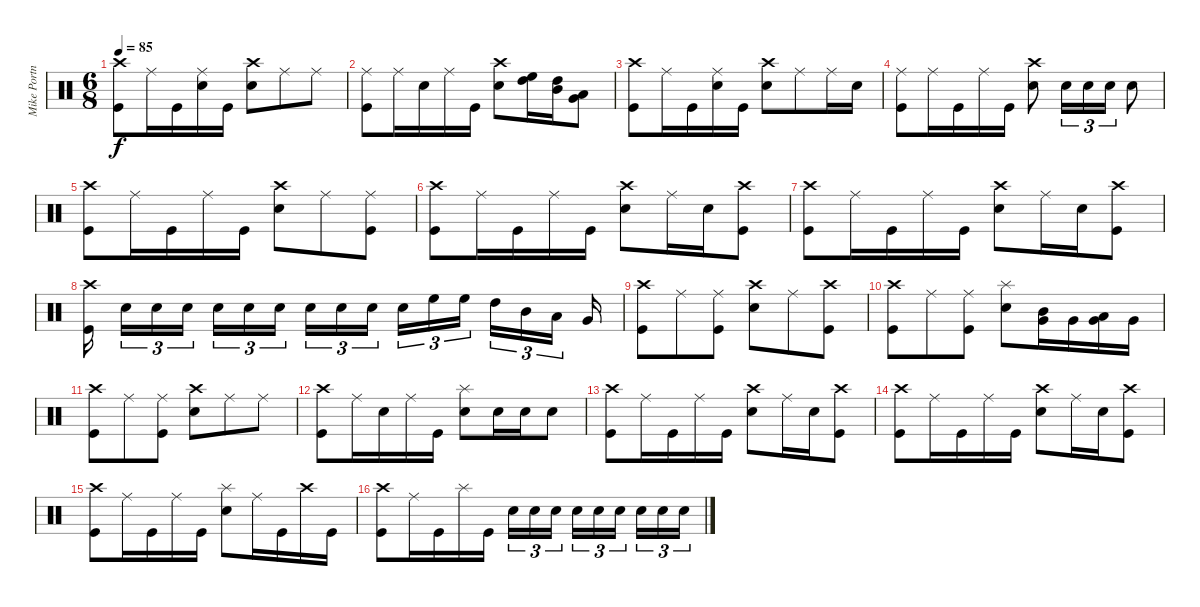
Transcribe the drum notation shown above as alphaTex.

\track ("Mike Portnoy" "Mike Portn") {instrument percussion}
\staff {score}
\articulation defaults
\ts (6 8)
\tempo 85
\clef neutral
\ks c
("Crash high (hit)" "Kick (hit)").8{dy f} "Ride (middle)".16 "Kick (hit)".16 ("Ride (middle)" "Electric Snare (hit)").16 "Kick (hit)".16 ("Crash high (hit)" "Electric Snare (hit)").8 "Ride (middle)".8 "Ride (middle)".8 |
("Ride (middle)" "Kick (hit)").8 "Ride (middle)".16 "Electric Snare (hit)".16 "Ride (middle)".16 "Kick (hit)".16 ("Crash high (hit)" "Electric Snare (hit)").8 ("High Floor Tom (hit)" "High Tom (hit)").16 ("High Tom (hit)" "Mid Tom (hit)").16 ("Very Low Tom (hit)" "Low Tom (hit)").8 |
("Crash high (hit)" "Kick (hit)").8 "Ride (middle)".16 "Kick (hit)".16 ("Ride (middle)" "Electric Snare (hit)").16 "Kick (hit)".16 ("Crash high (hit)" "Electric Snare (hit)").8 "Ride (middle)".8 "Ride (middle)".16 "Electric Snare (hit)".16 |
("Ride (middle)" "Kick (hit)").8 "Ride (middle)".16 "Kick (hit)".16 "Ride (middle)".16 "Kick (hit)".16 ("Crash high (hit)" "Electric Snare (hit)").8 "Electric Snare (hit)".16{tu (3 2)} "Electric Snare (hit)".16{tu (3 2)} "Electric Snare (hit)".16{tu (3 2)} "Electric Snare (hit)".8 |
("Crash high (hit)" "Kick (hit)").8 "Ride (middle)".16 "Kick (hit)".16 "Ride (middle)".16 "Kick (hit)".16 ("Crash high (hit)" "Electric Snare (hit)").8 "Ride (middle)".8 ("Ride (middle)" "Kick (hit)").8 |
("Crash high (hit)" "Kick (hit)").8 "Ride (middle)".16 "Kick (hit)".16 "Ride (middle)".16 "Kick (hit)".16 ("Crash high (hit)" "Electric Snare (hit)").8 "Ride (middle)".16 "Electric Snare (hit)".16 ("Crash high (hit)" "Kick (hit)").8 |
("Crash high (hit)" "Kick (hit)").8 "Ride (middle)".16 "Kick (hit)".16 "Ride (middle)".16 "Kick (hit)".16 ("Crash high (hit)" "Electric Snare (hit)").8 "Ride (middle)".16 "Electric Snare (hit)".16 ("Crash high (hit)" "Kick (hit)").8 |
("Crash high (hit)" "Kick (hit)").16 "Electric Snare (hit)".16{tu (3 2)} "Electric Snare (hit)".16{tu (3 2)} "Electric Snare (hit)".16{tu (3 2)} "Electric Snare (hit)".16{tu (3 2)} "Electric Snare (hit)".16{tu (3 2)} "Electric Snare (hit)".16{tu (3 2)} "Electric Snare (hit)".16{tu (3 2)} "Electric Snare (hit)".16{tu (3 2)} "Electric Snare (hit)".16{tu (3 2)} "Electric Snare (hit)".16{tu (3 2)} "High Floor Tom (hit)".16{tu (3 2)} "High Floor Tom (hit)".16{tu (3 2)} "High Tom (hit)".16{tu (3 2)} "Mid Tom (hit)".16{tu (3 2)} "Low Tom (hit)".16{tu (3 2)} "Very Low Tom (hit)".16 |
("Crash high (hit)" "Kick (hit)").8 "Ride (middle)".8 ("Ride (middle)" "Kick (hit)").8 ("Crash high (hit)" "Electric Snare (hit)").8 "Ride (middle)".8 ("Crash high (hit)" "Kick (hit)").8 |
("Crash high (hit)" "Kick (hit)").8 "Ride (middle)".8 ("Ride (middle)" "Kick (hit)").8 ("Splash (hit)" "Electric Snare (hit)").8 ("Mid Tom (hit)" "Very Low Tom (hit)").16 "Very Low Tom (hit)".16 ("Low Tom (hit)" "Very Low Tom (hit)").16 "Very Low Tom (hit)".16 |
("Crash high (hit)" "Kick (hit)").8 "Ride (middle)".8 ("Ride (middle)" "Kick (hit)").8 ("Crash high (hit)" "Electric Snare (hit)").8 "Ride (middle)".8 "Ride (middle)".8 |
("Crash high (hit)" "Kick (hit)").8 "Ride (middle)".16 "Electric Snare (hit)".16 "Ride (middle)".16 "Kick (hit)".16 ("Splash (hit)" "Electric Snare (hit)").8 "Electric Snare (hit)".16 "Electric Snare (hit)".16 "Electric Snare (hit)".8 |
("Crash high (hit)" "Kick (hit)").8 "Ride (middle)".16 "Kick (hit)".16 "Ride (middle)".16 "Kick (hit)".16 ("Crash high (hit)" "Electric Snare (hit)").8 "Ride (middle)".16 "Electric Snare (hit)".16 ("Crash high (hit)" "Kick (hit)").8 |
("Crash high (hit)" "Kick (hit)").8 "Ride (middle)".16 "Kick (hit)".16 "Ride (middle)".16 "Kick (hit)".16 ("Crash high (hit)" "Electric Snare (hit)").8 "Ride (middle)".16 "Electric Snare (hit)".16 ("Crash high (hit)" "Kick (hit)").8 |
("Crash high (hit)" "Kick (hit)").8 "Ride (middle)".16 "Kick (hit)".16 "Ride (middle)".16 "Kick (hit)".16 ("Splash (hit)" "Electric Snare (hit)").8 "Ride (middle)".16 "Kick (hit)".16 "Crash high (hit)".16 "Kick (hit)".16 |
("Crash high (hit)" "Kick (hit)").8 "Ride (middle)".16 "Kick (hit)".16 "Splash (hit)".16 "Kick (hit)".16 "Electric Snare (hit)".16{tu (3 2)} "Electric Snare (hit)".16{tu (3 2)} "Electric Snare (hit)".16{tu (3 2)} "Electric Snare (hit)".16{tu (3 2)} "Electric Snare (hit)".16{tu (3 2)} "Electric Snare (hit)".16{tu (3 2)} "Electric Snare (hit)".16{tu (3 2)} "Electric Snare (hit)".16{tu (3 2)} "Electric Snare (hit)".16{tu (3 2)}
